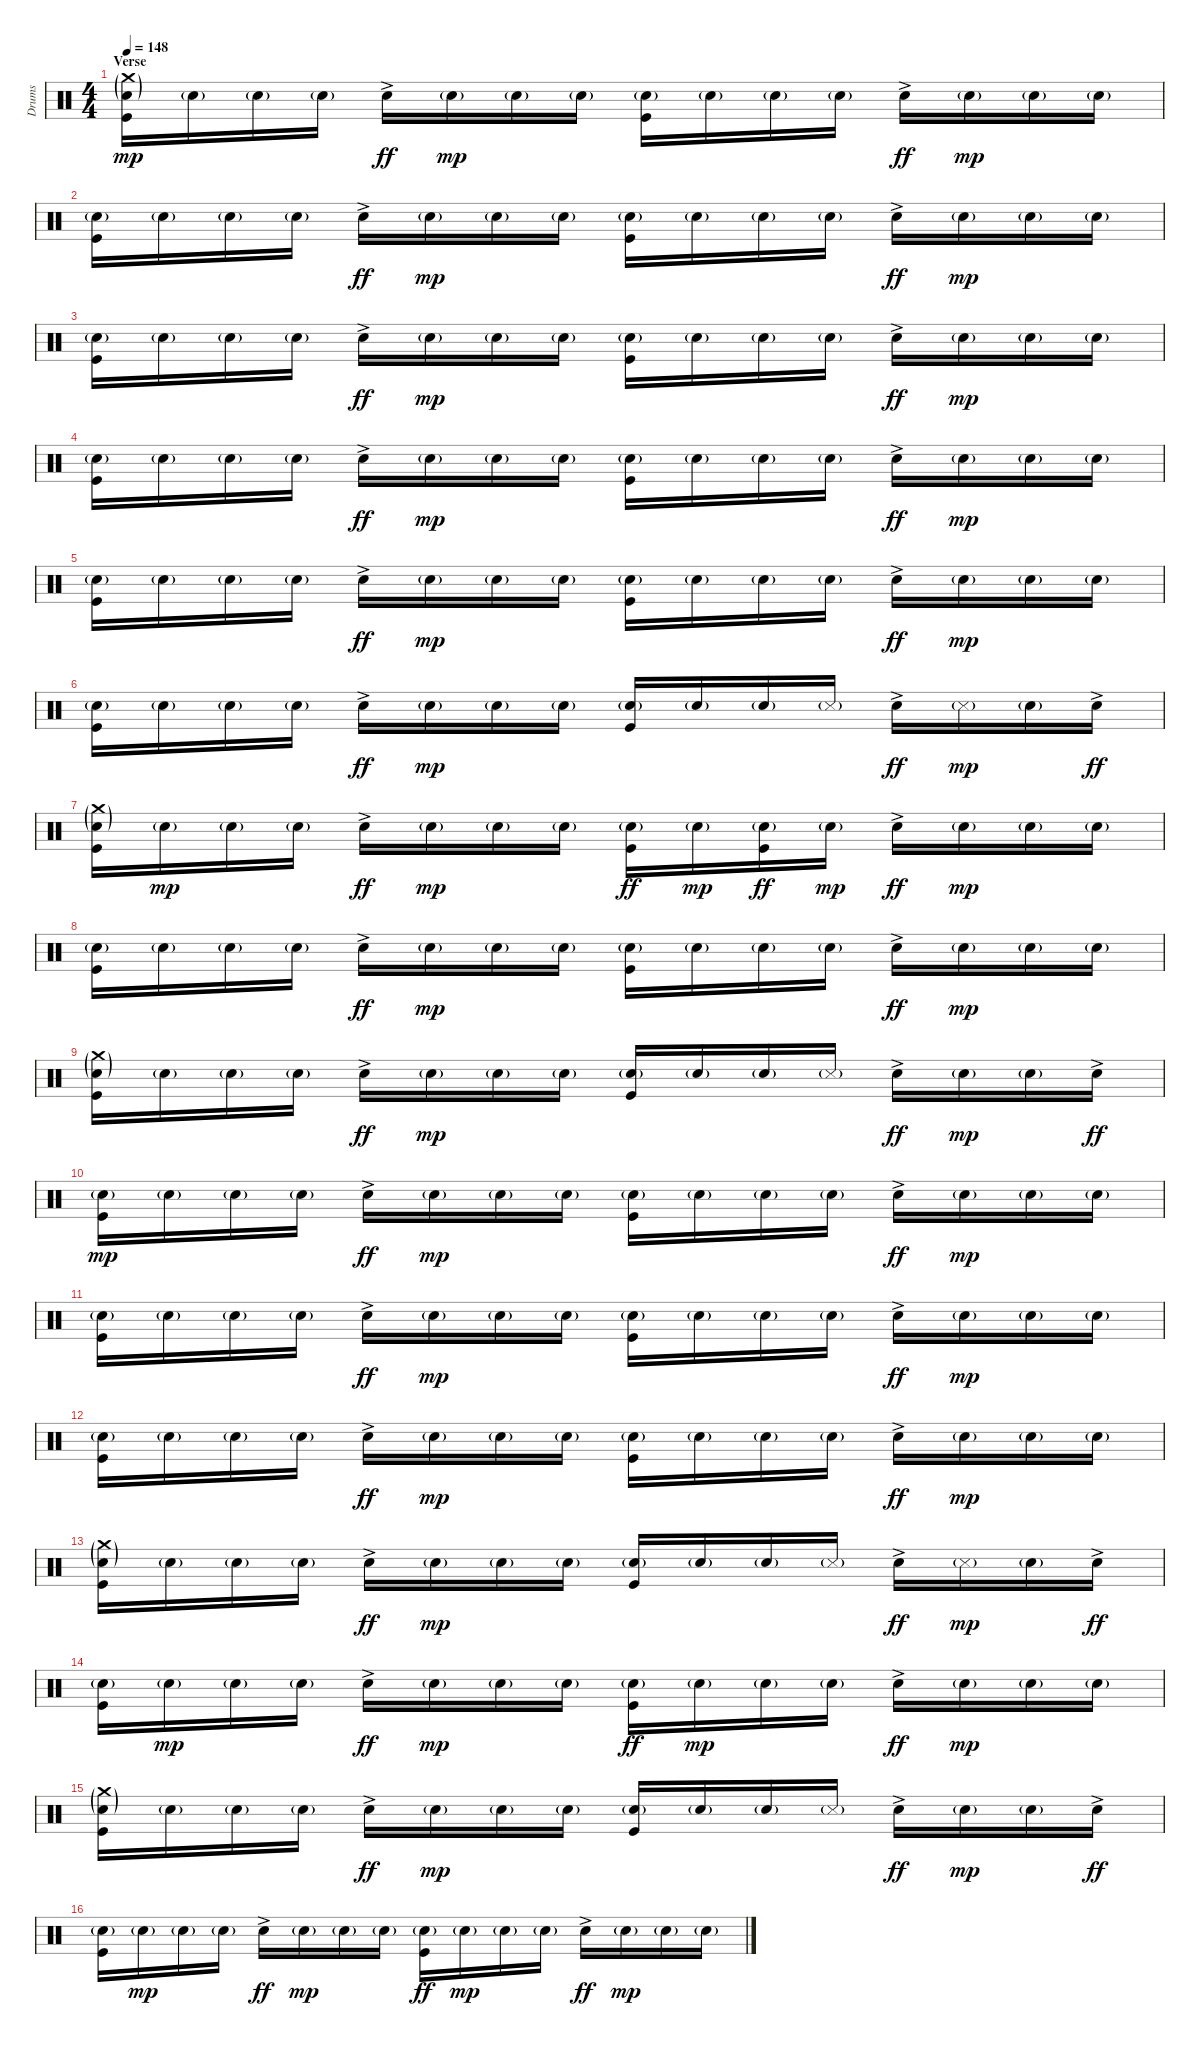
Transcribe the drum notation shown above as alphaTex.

\track ("Drums" "Drums") {instrument percussion}
\staff {score}
\articulation defaults
\ts (4 4)
\section ("" "Verse")
\tempo 148
\clef neutral
\ks c
("Crash medium (hit)"{g} "Snare (hit) 2"{g} "Kick (hit)").16{dy mp beam Down} "Snare (hit) 2"{g}.16{beam Down} "Snare (hit) 2"{g}.16{beam Down} "Snare (hit) 2"{g}.16{beam Down} "Electric Snare (hit)"{ac}.16{dy ff} "Snare (hit) 2"{g}.16{dy mp} "Snare (hit) 2"{g}.16 "Snare (hit) 2"{g}.16 ("Snare (hit) 2"{g} "Kick (hit)").16{beam Down} "Snare (hit) 2"{g}.16{beam Down} "Snare (hit) 2"{g}.16{beam Down} "Snare (hit) 2"{g}.16{beam Down} "Electric Snare (hit)"{ac}.16{dy ff} "Snare (hit) 2"{g}.16{dy mp} "Snare (hit) 2"{g}.16 "Snare (hit) 2"{g}.16 |
("Snare (hit) 2"{g} "Kick (hit)").16{beam Down} "Snare (hit) 2"{g}.16{beam Down} "Snare (hit) 2"{g}.16{beam Down} "Snare (hit) 2"{g}.16{beam Down} "Electric Snare (hit)"{ac}.16{dy ff} "Snare (hit) 2"{g}.16{dy mp} "Snare (hit) 2"{g}.16 "Snare (hit) 2"{g}.16 ("Snare (hit) 2"{g} "Kick (hit)").16{beam Down} "Snare (hit) 2"{g}.16{beam Down} "Snare (hit) 2"{g}.16{beam Down} "Snare (hit) 2"{g}.16{beam Down} "Electric Snare (hit)"{ac}.16{dy ff} "Snare (hit) 2"{g}.16{dy mp} "Snare (hit) 2"{g}.16 "Snare (hit) 2"{g}.16 |
("Snare (hit) 2"{g} "Kick (hit)").16{beam Down} "Snare (hit) 2"{g}.16{beam Down} "Snare (hit) 2"{g}.16{beam Down} "Snare (hit) 2"{g}.16{beam Down} "Electric Snare (hit)"{ac}.16{dy ff} "Snare (hit) 2"{g}.16{dy mp} "Snare (hit) 2"{g}.16 "Snare (hit) 2"{g}.16 ("Snare (hit) 2"{g} "Kick (hit)").16{beam Down} "Snare (hit) 2"{g}.16{beam Down} "Snare (hit) 2"{g}.16{beam Down} "Snare (hit) 2"{g}.16{beam Down} "Electric Snare (hit)"{ac}.16{dy ff} "Snare (hit) 2"{g}.16{dy mp} "Snare (hit) 2"{g}.16 "Snare (hit) 2"{g}.16 |
("Snare (hit) 2"{g} "Kick (hit)").16{beam Down} "Snare (hit) 2"{g}.16{beam Down} "Snare (hit) 2"{g}.16{beam Down} "Snare (hit) 2"{g}.16{beam Down} "Electric Snare (hit)"{ac}.16{dy ff} "Snare (hit) 2"{g}.16{dy mp} "Snare (hit) 2"{g}.16 "Snare (hit) 2"{g}.16 ("Snare (hit) 2"{g} "Kick (hit)").16{beam Down} "Snare (hit) 2"{g}.16{beam Down} "Snare (hit) 2"{g}.16{beam Down} "Snare (hit) 2"{g}.16{beam Down} "Electric Snare (hit)"{ac}.16{dy ff} "Snare (hit) 2"{g}.16{dy mp} "Snare (hit) 2"{g}.16 "Snare (hit) 2"{g}.16 |
("Snare (hit) 2"{g} "Kick (hit)").16{beam Down} "Snare (hit) 2"{g}.16{beam Down} "Snare (hit) 2"{g}.16{beam Down} "Snare (hit) 2"{g}.16{beam Down} "Electric Snare (hit)"{ac}.16{dy ff} "Snare (hit) 2"{g}.16{dy mp} "Snare (hit) 2"{g}.16 "Snare (hit) 2"{g}.16 ("Snare (hit) 2"{g} "Kick (hit)").16{beam Down} "Snare (hit) 2"{g}.16{beam Down} "Snare (hit) 2"{g}.16{beam Down} "Snare (hit) 2"{g}.16{beam Down} "Electric Snare (hit)"{ac}.16{dy ff} "Snare (hit) 2"{g}.16{dy mp} "Snare (hit) 2"{g}.16 "Snare (hit) 2"{g}.16 |
("Snare (hit) 2"{g} "Kick (hit)").16{beam Down} "Snare (hit) 2"{g}.16{beam Down} "Snare (hit) 2"{g}.16{beam Down} "Snare (hit) 2"{g}.16{beam Down} "Electric Snare (hit)"{ac}.16{dy ff} "Snare (hit) 2"{g}.16{dy mp} "Snare (hit) 2"{g}.16 "Snare (hit) 2"{g}.16 ("Snare (hit) 2"{g} "Kick (hit)").16 "Snare (hit) 2"{g}.16 "Snare (hit) 2"{g}.16 "Snare (side stick) 3"{g}.16 "Electric Snare (hit)"{ac}.16{dy ff} "Snare (side stick) 3"{g}.16{dy mp} "Snare (hit) 2"{g}.16 "Electric Snare (hit)"{ac}.16{dy ff} |
("Crash medium (hit)"{g} "Snare (hit) 2"{g} "Kick (hit)").16{beam Down} "Snare (hit) 2"{g}.16{dy mp beam Down} "Snare (hit) 2"{g}.16{beam Down} "Snare (hit) 2"{g}.16{beam Down} "Electric Snare (hit)"{ac}.16{dy ff} "Snare (hit) 2"{g}.16{dy mp} "Snare (hit) 2"{g}.16 "Snare (hit) 2"{g}.16 ("Snare (hit) 2"{g} "Kick (hit)").16{dy ff beam Down} "Snare (hit) 2"{g}.16{dy mp beam Down} ("Snare (hit) 2"{g} "Kick (hit)").16{dy ff beam Down} "Snare (hit) 2"{g}.16{dy mp beam Down} "Electric Snare (hit)"{ac}.16{dy ff} "Snare (hit) 2"{g}.16{dy mp} "Snare (hit) 2"{g}.16 "Snare (hit) 2"{g}.16 |
("Snare (hit) 2"{g} "Kick (hit)").16{beam Down} "Snare (hit) 2"{g}.16{beam Down} "Snare (hit) 2"{g}.16{beam Down} "Snare (hit) 2"{g}.16{beam Down} "Electric Snare (hit)"{ac}.16{dy ff} "Snare (hit) 2"{g}.16{dy mp} "Snare (hit) 2"{g}.16 "Snare (hit) 2"{g}.16 ("Snare (hit) 2"{g} "Kick (hit)").16{beam Down} "Snare (hit) 2"{g}.16{beam Down} "Snare (hit) 2"{g}.16{beam Down} "Snare (hit) 2"{g}.16{beam Down} "Electric Snare (hit)"{ac}.16{dy ff} "Snare (hit) 2"{g}.16{dy mp} "Snare (hit) 2"{g}.16 "Snare (hit) 2"{g}.16 |
("Crash medium (hit)"{g} "Snare (hit) 2"{g} "Kick (hit)").16{beam Down} "Snare (hit) 2"{g}.16{beam Down} "Snare (hit) 2"{g}.16{beam Down} "Snare (hit) 2"{g}.16{beam Down} "Electric Snare (hit)"{ac}.16{dy ff} "Snare (hit) 2"{g}.16{dy mp} "Snare (hit) 2"{g}.16 "Snare (hit) 2"{g}.16 ("Snare (hit) 2"{g} "Kick (hit)").16 "Snare (hit) 2"{g}.16 "Snare (hit) 2"{g}.16 "Snare (side stick) 3"{g}.16 "Electric Snare (hit)"{ac}.16{dy ff} "Snare (hit) 2"{g}.16{dy mp} "Snare (hit) 2"{g}.16 "Electric Snare (hit)"{ac}.16{dy ff} |
("Snare (hit) 2"{g} "Kick (hit)").16{dy mp beam Down} "Snare (hit) 2"{g}.16{beam Down} "Snare (hit) 2"{g}.16{beam Down} "Snare (hit) 2"{g}.16{beam Down} "Electric Snare (hit)"{ac}.16{dy ff} "Snare (hit) 2"{g}.16{dy mp} "Snare (hit) 2"{g}.16 "Snare (hit) 2"{g}.16 ("Snare (hit) 2"{g} "Kick (hit)").16{beam Down} "Snare (hit) 2"{g}.16{beam Down} "Snare (hit) 2"{g}.16{beam Down} "Snare (hit) 2"{g}.16{beam Down} "Electric Snare (hit)"{ac}.16{dy ff} "Snare (hit) 2"{g}.16{dy mp} "Snare (hit) 2"{g}.16 "Snare (hit) 2"{g}.16 |
("Snare (hit) 2"{g} "Kick (hit)").16{beam Down} "Snare (hit) 2"{g}.16{beam Down} "Snare (hit) 2"{g}.16{beam Down} "Snare (hit) 2"{g}.16{beam Down} "Electric Snare (hit)"{ac}.16{dy ff} "Snare (hit) 2"{g}.16{dy mp} "Snare (hit) 2"{g}.16 "Snare (hit) 2"{g}.16 ("Snare (hit) 2"{g} "Kick (hit)").16{beam Down} "Snare (hit) 2"{g}.16{beam Down} "Snare (hit) 2"{g}.16{beam Down} "Snare (hit) 2"{g}.16{beam Down} "Electric Snare (hit)"{ac}.16{dy ff} "Snare (hit) 2"{g}.16{dy mp} "Snare (hit) 2"{g}.16 "Snare (hit) 2"{g}.16 |
("Snare (hit) 2"{g} "Kick (hit)").16{beam Down} "Snare (hit) 2"{g}.16{beam Down} "Snare (hit) 2"{g}.16{beam Down} "Snare (hit) 2"{g}.16{beam Down} "Electric Snare (hit)"{ac}.16{dy ff} "Snare (hit) 2"{g}.16{dy mp} "Snare (hit) 2"{g}.16 "Snare (hit) 2"{g}.16 ("Snare (hit) 2"{g} "Kick (hit)").16{beam Down} "Snare (hit) 2"{g}.16{beam Down} "Snare (hit) 2"{g}.16{beam Down} "Snare (hit) 2"{g}.16{beam Down} "Electric Snare (hit)"{ac}.16{dy ff} "Snare (hit) 2"{g}.16{dy mp} "Snare (hit) 2"{g}.16 "Snare (hit) 2"{g}.16 |
("Crash medium (hit)"{g} "Snare (hit) 2"{g} "Kick (hit)").16{beam Down} "Snare (hit) 2"{g}.16{beam Down} "Snare (hit) 2"{g}.16{beam Down} "Snare (hit) 2"{g}.16{beam Down} "Electric Snare (hit)"{ac}.16{dy ff} "Snare (hit) 2"{g}.16{dy mp} "Snare (hit) 2"{g}.16 "Snare (hit) 2"{g}.16 ("Snare (hit) 2"{g} "Kick (hit)").16 "Snare (hit) 2"{g}.16 "Snare (hit) 2"{g}.16 "Snare (side stick) 3"{g}.16 "Electric Snare (hit)"{ac}.16{dy ff} "Snare (side stick) 3"{g}.16{dy mp} "Snare (hit) 2"{g}.16 "Electric Snare (hit)"{ac}.16{dy ff} |
("Snare (hit) 2"{g} "Kick (hit)").16{beam Down} "Snare (hit) 2"{g}.16{dy mp beam Down} "Snare (hit) 2"{g}.16{beam Down} "Snare (hit) 2"{g}.16{beam Down} "Electric Snare (hit)"{ac}.16{dy ff} "Snare (hit) 2"{g}.16{dy mp} "Snare (hit) 2"{g}.16 "Snare (hit) 2"{g}.16 ("Snare (hit) 2"{g} "Kick (hit)").16{dy ff beam Down} "Snare (hit) 2"{g}.16{dy mp beam Down} "Snare (hit) 2"{g}.16{beam Down} "Snare (hit) 2"{g}.16{beam Down} "Electric Snare (hit)"{ac}.16{dy ff} "Snare (hit) 2"{g}.16{dy mp} "Snare (hit) 2"{g}.16 "Snare (hit) 2"{g}.16 |
("Crash medium (hit)"{g} "Snare (hit) 2"{g} "Kick (hit)").16{beam Down} "Snare (hit) 2"{g}.16{beam Down} "Snare (hit) 2"{g}.16{beam Down} "Snare (hit) 2"{g}.16{beam Down} "Electric Snare (hit)"{ac}.16{dy ff} "Snare (hit) 2"{g}.16{dy mp} "Snare (hit) 2"{g}.16 "Snare (hit) 2"{g}.16 ("Snare (hit) 2"{g} "Kick (hit)").16 "Snare (hit) 2"{g}.16 "Snare (hit) 2"{g}.16 "Snare (side stick) 3"{g}.16 "Electric Snare (hit)"{ac}.16{dy ff} "Snare (hit) 2"{g}.16{dy mp} "Snare (hit) 2"{g}.16 "Electric Snare (hit)"{ac}.16{dy ff} |
("Snare (hit) 2"{g} "Kick (hit)").16{beam Down} "Snare (hit) 2"{g}.16{dy mp beam Down} "Snare (hit) 2"{g}.16{beam Down} "Snare (hit) 2"{g}.16{beam Down} "Electric Snare (hit)"{ac}.16{dy ff} "Snare (hit) 2"{g}.16{dy mp} "Snare (hit) 2"{g}.16 "Snare (hit) 2"{g}.16 ("Snare (hit) 2"{g} "Kick (hit)").16{dy ff beam Down} "Snare (hit) 2"{g}.16{dy mp beam Down} "Snare (hit) 2"{g}.16{beam Down} "Snare (hit) 2"{g}.16{beam Down} "Electric Snare (hit)"{ac}.16{dy ff} "Snare (hit) 2"{g}.16{dy mp} "Snare (hit) 2"{g}.16 "Snare (hit) 2"{g}.16
